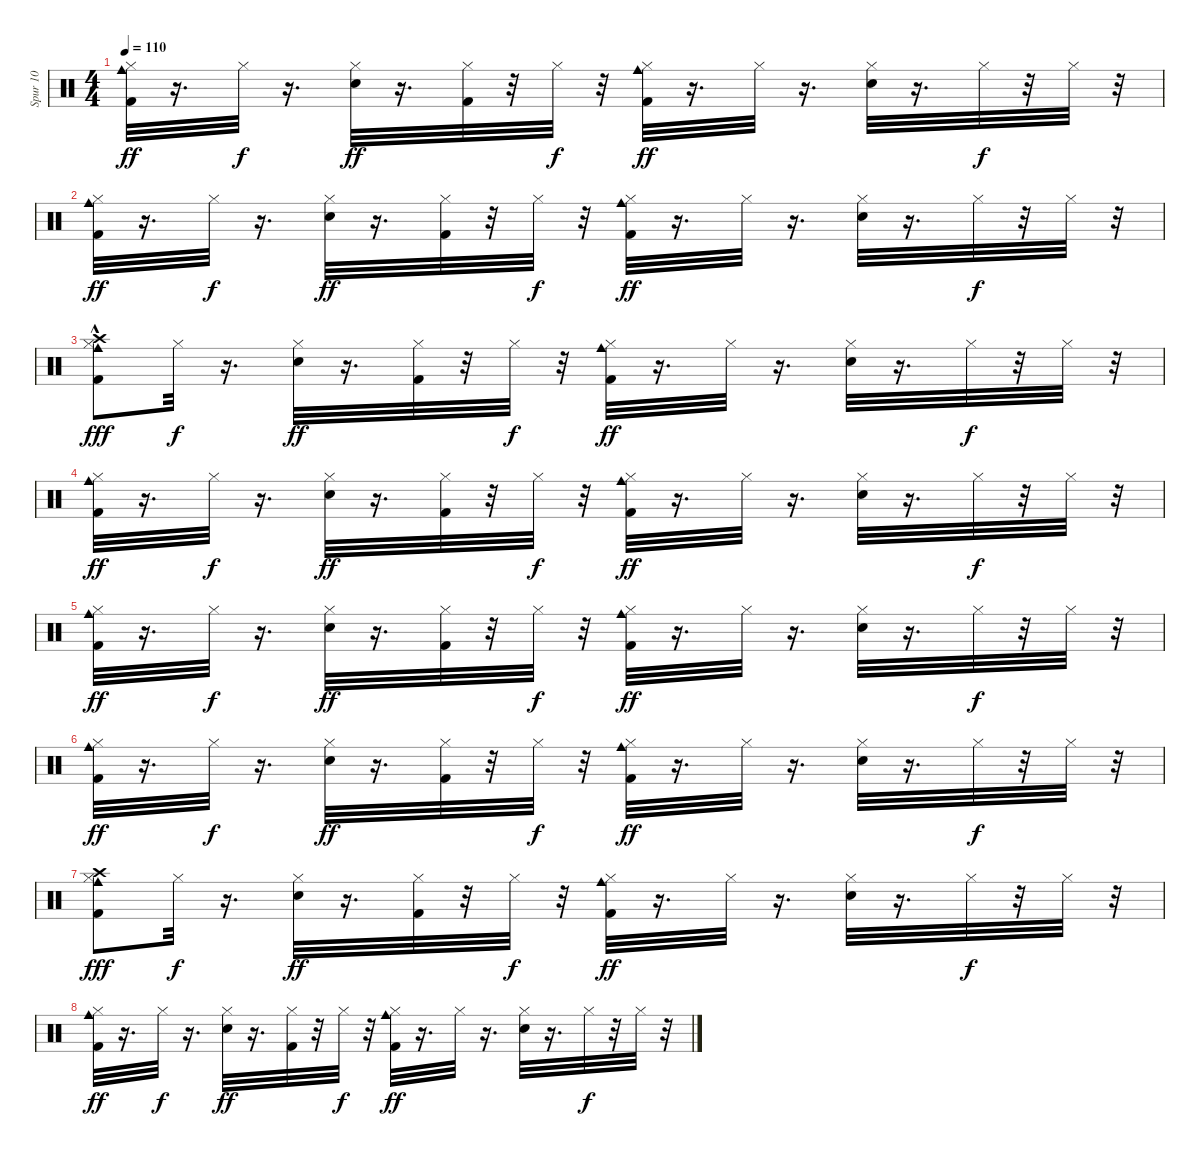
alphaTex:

\track ("Spur 10" "Spur 10") {instrument percussion}
\staff {score}
\articulation defaults
\ts (4 4)
\tempo 110
\clef neutral
\ks c
("Kick (hit) 2" "Cowbell medium (hit)" "Hi-Hat (closed)").32{dy ff} r.16{d} "Hi-Hat (closed)".32{dy f} r.16{d} ("Snare (hit) 2" "Hi-Hat (closed)").32{dy ff} r.16{d} ("Kick (hit) 2" "Hi-Hat (closed)").32 r.32 "Hi-Hat (closed)".32{dy f} r.32 ("Kick (hit) 2" "Cowbell medium (hit)" "Hi-Hat (closed)").32{dy ff} r.16{d} "Hi-Hat (closed)".32 r.16{d} ("Snare (hit) 2" "Hi-Hat (closed)").32 r.16{d} "Hi-Hat (closed)".32{dy f} r.32 "Hi-Hat (closed)".32 r.32 |
("Kick (hit) 2" "Cowbell medium (hit)" "Hi-Hat (closed)").32{dy ff} r.16{d} "Hi-Hat (closed)".32{dy f} r.16{d} ("Snare (hit) 2" "Hi-Hat (closed)").32{dy ff} r.16{d} ("Kick (hit) 2" "Hi-Hat (closed)").32 r.32 "Hi-Hat (closed)".32{dy f} r.32 ("Kick (hit) 2" "Cowbell medium (hit)" "Hi-Hat (closed)").32{dy ff} r.16{d} "Hi-Hat (closed)".32 r.16{d} ("Snare (hit) 2" "Hi-Hat (closed)").32 r.16{d} "Hi-Hat (closed)".32{dy f} r.32 "Hi-Hat (closed)".32 r.32 |
("Kick (hit) 2" "Cowbell medium (hit)" "Hi-Hat (closed)" "Crash high (hit)"{hac}).8{dy fff} "Hi-Hat (closed)".32{dy f} r.16{d} ("Snare (hit) 2" "Hi-Hat (closed)").32{dy ff} r.16{d} ("Kick (hit) 2" "Hi-Hat (closed)").32 r.32 "Hi-Hat (closed)".32{dy f} r.32 ("Kick (hit) 2" "Cowbell medium (hit)" "Hi-Hat (closed)").32{dy ff} r.16{d} "Hi-Hat (closed)".32 r.16{d} ("Snare (hit) 2" "Hi-Hat (closed)").32 r.16{d} "Hi-Hat (closed)".32{dy f} r.32 "Hi-Hat (closed)".32 r.32 |
("Kick (hit) 2" "Cowbell medium (hit)" "Hi-Hat (closed)").32{dy ff} r.16{d} "Hi-Hat (closed)".32{dy f} r.16{d} ("Snare (hit) 2" "Hi-Hat (closed)").32{dy ff} r.16{d} ("Kick (hit) 2" "Hi-Hat (closed)").32 r.32 "Hi-Hat (closed)".32{dy f} r.32 ("Kick (hit) 2" "Cowbell medium (hit)" "Hi-Hat (closed)").32{dy ff} r.16{d} "Hi-Hat (closed)".32 r.16{d} ("Snare (hit) 2" "Hi-Hat (closed)").32 r.16{d} "Hi-Hat (closed)".32{dy f} r.32 "Hi-Hat (closed)".32 r.32 |
("Kick (hit) 2" "Cowbell medium (hit)" "Hi-Hat (closed)").32{dy ff} r.16{d} "Hi-Hat (closed)".32{dy f} r.16{d} ("Snare (hit) 2" "Hi-Hat (closed)").32{dy ff} r.16{d} ("Kick (hit) 2" "Hi-Hat (closed)").32 r.32 "Hi-Hat (closed)".32{dy f} r.32 ("Kick (hit) 2" "Cowbell medium (hit)" "Hi-Hat (closed)").32{dy ff} r.16{d} "Hi-Hat (closed)".32 r.16{d} ("Snare (hit) 2" "Hi-Hat (closed)").32 r.16{d} "Hi-Hat (closed)".32{dy f} r.32 "Hi-Hat (closed)".32 r.32 |
("Kick (hit) 2" "Cowbell medium (hit)" "Hi-Hat (closed)").32{dy ff} r.16{d} "Hi-Hat (closed)".32{dy f} r.16{d} ("Snare (hit) 2" "Hi-Hat (closed)").32{dy ff} r.16{d} ("Kick (hit) 2" "Hi-Hat (closed)").32 r.32 "Hi-Hat (closed)".32{dy f} r.32 ("Kick (hit) 2" "Cowbell medium (hit)" "Hi-Hat (closed)").32{dy ff} r.16{d} "Hi-Hat (closed)".32 r.16{d} ("Snare (hit) 2" "Hi-Hat (closed)").32 r.16{d} "Hi-Hat (closed)".32{dy f} r.32 "Hi-Hat (closed)".32 r.32 |
("Kick (hit) 2" "Cowbell medium (hit)" "Hi-Hat (closed)" "Crash high (hit)").8{dy fff} "Hi-Hat (closed)".32{dy f} r.16{d} ("Snare (hit) 2" "Hi-Hat (closed)").32{dy ff} r.16{d} ("Kick (hit) 2" "Hi-Hat (closed)").32 r.32 "Hi-Hat (closed)".32{dy f} r.32 ("Kick (hit) 2" "Cowbell medium (hit)" "Hi-Hat (closed)").32{dy ff} r.16{d} "Hi-Hat (closed)".32 r.16{d} ("Snare (hit) 2" "Hi-Hat (closed)").32 r.16{d} "Hi-Hat (closed)".32{dy f} r.32 "Hi-Hat (closed)".32 r.32 |
("Kick (hit) 2" "Cowbell medium (hit)" "Hi-Hat (closed)").32{dy ff} r.16{d} "Hi-Hat (closed)".32{dy f} r.16{d} ("Snare (hit) 2" "Hi-Hat (closed)").32{dy ff} r.16{d} ("Kick (hit) 2" "Hi-Hat (closed)").32 r.32 "Hi-Hat (closed)".32{dy f} r.32 ("Kick (hit) 2" "Cowbell medium (hit)" "Hi-Hat (closed)").32{dy ff} r.16{d} "Hi-Hat (closed)".32 r.16{d} ("Snare (hit) 2" "Hi-Hat (closed)").32 r.16{d} "Hi-Hat (closed)".32{dy f} r.32 "Hi-Hat (closed)".32 r.32
